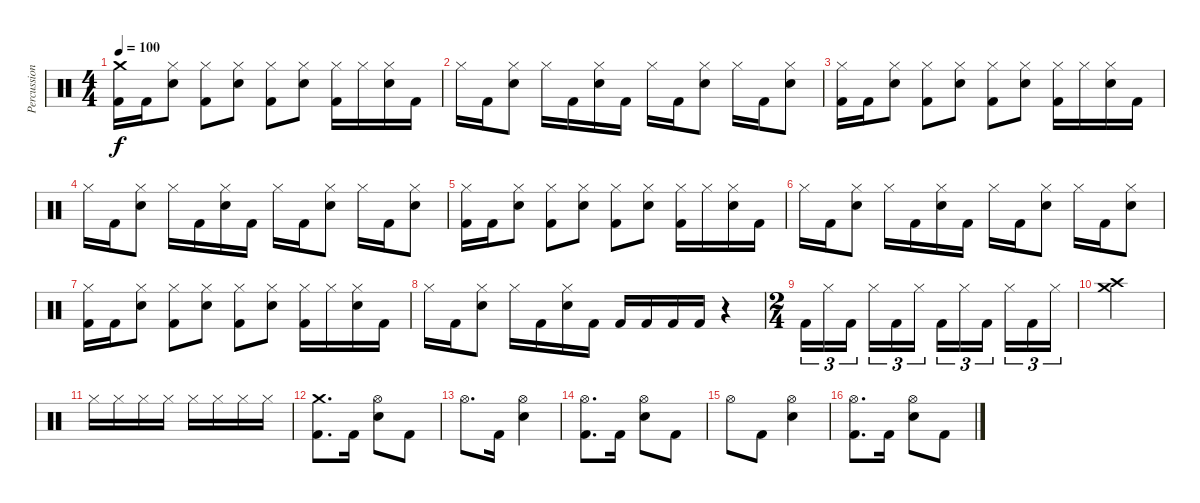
\track ("Percussion" "Percussion") {instrument percussion}
\staff {score}
\articulation defaults
\ts (4 4)
\tempo 100
\clef neutral
\ks c
("Crash medium (hit)" "Kick (hit) 2").16{dy f} "Kick (hit) 2".16 ("Hi-Hat (closed)" "Electric Snare (hit)").8 ("Hi-Hat (closed)" "Kick (hit) 2").8 ("Hi-Hat (closed)" "Electric Snare (hit)").8 ("Hi-Hat (closed)" "Kick (hit) 2").8 ("Hi-Hat (closed)" "Electric Snare (hit)").8 ("Hi-Hat (closed)" "Kick (hit) 2").16 "Hi-Hat (closed)".16 ("Hi-Hat (closed)" "Electric Snare (hit)").16 "Kick (hit) 2".16 |
"Hi-Hat (closed)".16 "Kick (hit) 2".16 ("Hi-Hat (closed)" "Electric Snare (hit)").8 "Hi-Hat (closed)".16 "Kick (hit) 2".16 ("Hi-Hat (closed)" "Electric Snare (hit)").16 "Kick (hit) 2".16 "Hi-Hat (closed)".16 "Kick (hit) 2".16 ("Hi-Hat (closed)" "Electric Snare (hit)").8 "Hi-Hat (closed)".16 "Kick (hit) 2".16 ("Hi-Hat (closed)" "Electric Snare (hit)").8 |
("Hi-Hat (closed)" "Kick (hit) 2").16 "Kick (hit) 2".16 ("Hi-Hat (closed)" "Electric Snare (hit)").8 ("Hi-Hat (closed)" "Kick (hit) 2").8 ("Hi-Hat (closed)" "Electric Snare (hit)").8 ("Hi-Hat (closed)" "Kick (hit) 2").8 ("Hi-Hat (closed)" "Electric Snare (hit)").8 ("Hi-Hat (closed)" "Kick (hit) 2").16 "Hi-Hat (closed)".16 ("Hi-Hat (closed)" "Electric Snare (hit)").16 "Kick (hit) 2".16 |
"Hi-Hat (closed)".16 "Kick (hit) 2".16 ("Hi-Hat (closed)" "Electric Snare (hit)").8 "Hi-Hat (closed)".16 "Kick (hit) 2".16 ("Hi-Hat (closed)" "Electric Snare (hit)").16 "Kick (hit) 2".16 "Hi-Hat (closed)".16 "Kick (hit) 2".16 ("Hi-Hat (closed)" "Electric Snare (hit)").8 "Hi-Hat (closed)".16 "Kick (hit) 2".16 ("Hi-Hat (closed)" "Electric Snare (hit)").8 |
("Hi-Hat (closed)" "Kick (hit) 2").16 "Kick (hit) 2".16 ("Hi-Hat (closed)" "Electric Snare (hit)").8 ("Hi-Hat (closed)" "Kick (hit) 2").8 ("Hi-Hat (closed)" "Electric Snare (hit)").8 ("Hi-Hat (closed)" "Kick (hit) 2").8 ("Hi-Hat (closed)" "Electric Snare (hit)").8 ("Hi-Hat (closed)" "Kick (hit) 2").16 "Hi-Hat (closed)".16 ("Hi-Hat (closed)" "Electric Snare (hit)").16 "Kick (hit) 2".16 |
"Hi-Hat (closed)".16 "Kick (hit) 2".16 ("Hi-Hat (closed)" "Electric Snare (hit)").8 "Hi-Hat (closed)".16 "Kick (hit) 2".16 ("Hi-Hat (closed)" "Electric Snare (hit)").16 "Kick (hit) 2".16 "Hi-Hat (closed)".16 "Kick (hit) 2".16 ("Hi-Hat (closed)" "Electric Snare (hit)").8 "Hi-Hat (closed)".16 "Kick (hit) 2".16 ("Hi-Hat (closed)" "Electric Snare (hit)").8 |
("Hi-Hat (closed)" "Kick (hit) 2").16 "Kick (hit) 2".16 ("Hi-Hat (closed)" "Electric Snare (hit)").8 ("Hi-Hat (closed)" "Kick (hit) 2").8 ("Hi-Hat (closed)" "Electric Snare (hit)").8 ("Hi-Hat (closed)" "Kick (hit) 2").8 ("Hi-Hat (closed)" "Electric Snare (hit)").8 ("Hi-Hat (closed)" "Kick (hit) 2").16 "Hi-Hat (closed)".16 ("Hi-Hat (closed)" "Electric Snare (hit)").16 "Kick (hit) 2".16 |
"Hi-Hat (closed)".16 "Kick (hit) 2".16 ("Hi-Hat (closed)" "Electric Snare (hit)").8 "Hi-Hat (closed)".16 "Kick (hit) 2".16 ("Hi-Hat (closed)" "Electric Snare (hit)").16 "Kick (hit) 2".16 "Kick (hit) 2".16 "Kick (hit) 2".16 "Kick (hit) 2".16 "Kick (hit) 2".16 r.4 |
\ts (2 4)
"Kick (hit) 2".16{tu (3 2)} "Hi-Hat (closed)".16{tu (3 2)} "Kick (hit) 2".16{tu (3 2) beam splitsecondary} "Hi-Hat (closed)".16{tu (3 2)} "Kick (hit) 2".16{tu (3 2)} "Hi-Hat (closed)".16{tu (3 2)} "Kick (hit) 2".16{tu (3 2)} "Hi-Hat (closed)".16{tu (3 2)} "Kick (hit) 2".16{tu (3 2) beam splitsecondary} "Hi-Hat (closed)".16{tu (3 2)} "Kick (hit) 2".16{tu (3 2)} "Hi-Hat (closed)".16{tu (3 2)} |
("Crash medium (hit)" "Crash high (hit)").2 |
"Hi-Hat (closed)".16 "Hi-Hat (closed)".16 "Hi-Hat (closed)".16 "Hi-Hat (closed)".16 "Hi-Hat (closed)".16 "Hi-Hat (closed)".16 "Hi-Hat (closed)".16 "Hi-Hat (closed)".16 |
("Crash medium (hit)" "Kick (hit) 2").8{d} "Kick (hit) 2".16 ("Hi-Hat (open)" "Electric Snare (hit)").8 "Kick (hit) 2".8 |
"Hi-Hat (open)".8{d} "Kick (hit) 2".16 ("Hi-Hat (open)" "Electric Snare (hit)").4 |
("Hi-Hat (open)" "Kick (hit) 2").8{d} "Kick (hit) 2".16 ("Hi-Hat (open)" "Electric Snare (hit)").8 "Kick (hit) 2".8 |
"Hi-Hat (open)".8 "Kick (hit) 2".8 ("Hi-Hat (open)" "Electric Snare (hit)").4 |
("Hi-Hat (open)" "Kick (hit) 2").8{d} "Kick (hit) 2".16 ("Hi-Hat (open)" "Electric Snare (hit)").8 "Kick (hit) 2".8
